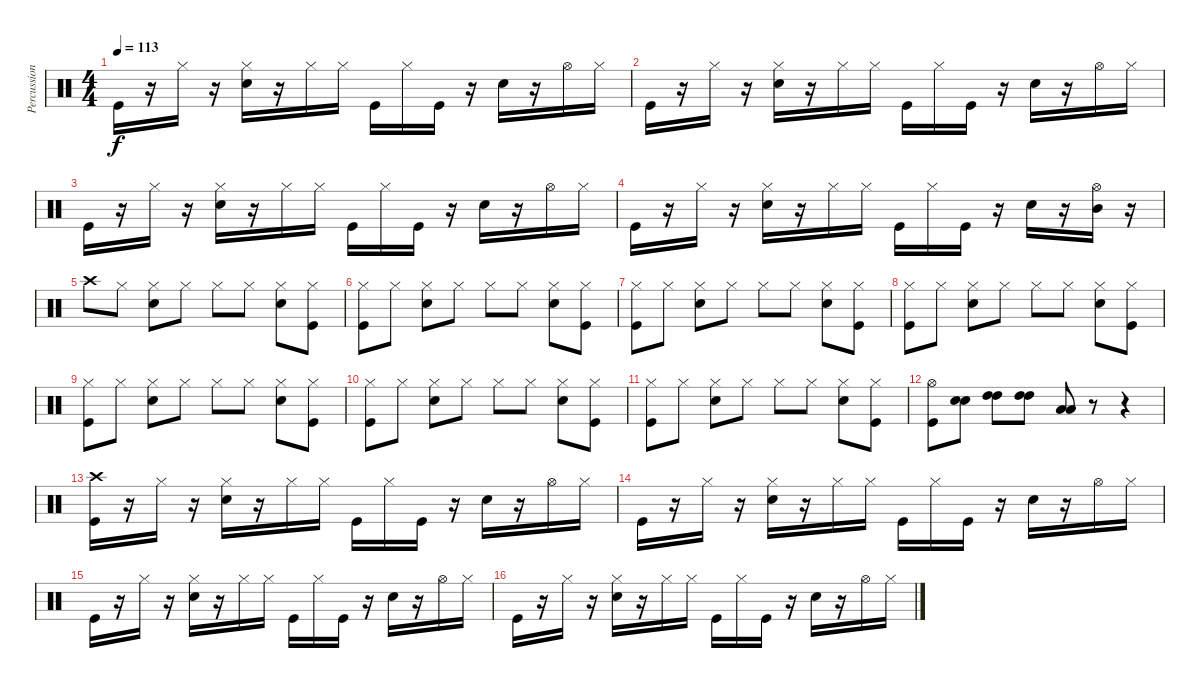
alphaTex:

\track ("Percussioni" "Percussion") {instrument percussion}
\staff {score}
\articulation defaults
\ts (4 4)
\tempo 113
\clef neutral
\ks c "Kick (hit)".16{dy f}
r.16 "Hi-Hat (closed)".16 r.16 ("Hi-Hat (closed)" "Electric Snare (hit)").16 r.16 "Hi-Hat (closed)".16 "Hi-Hat (closed)".16 "Kick (hit)".16 "Hi-Hat (closed)".16 "Kick (hit)".16 r.16 "Electric Snare (hit)".16 r.16 "Hi-Hat (open)".16 "Hi-Hat (closed)".16 |
"Kick (hit)".16 r.16 "Hi-Hat (closed)".16 r.16 ("Hi-Hat (closed)" "Electric Snare (hit)").16 r.16 "Hi-Hat (closed)".16 "Hi-Hat (closed)".16 "Kick (hit)".16 "Hi-Hat (closed)".16 "Kick (hit)".16 r.16 "Electric Snare (hit)".16 r.16 "Hi-Hat (open)".16 "Hi-Hat (closed)".16 |
"Kick (hit)".16 r.16 "Hi-Hat (closed)".16 r.16 ("Hi-Hat (closed)" "Electric Snare (hit)").16 r.16 "Hi-Hat (closed)".16 "Hi-Hat (closed)".16 "Kick (hit)".16 "Hi-Hat (closed)".16 "Kick (hit)".16 r.16 "Electric Snare (hit)".16 r.16 "Hi-Hat (open)".16 "Hi-Hat (closed)".16 |
"Kick (hit)".16 r.16 "Hi-Hat (closed)".16 r.16 ("Hi-Hat (closed)" "Electric Snare (hit)").16 r.16 "Hi-Hat (closed)".16 "Hi-Hat (closed)".16 "Kick (hit)".16 "Hi-Hat (closed)".16 "Kick (hit)".16 r.16 "Electric Snare (hit)".16 r.16 ("Hi-Hat (open)" "Mid Tom (hit)").16 r.16 |
"Crash high (hit)".8 "Hi-Hat (closed)".8 ("Hi-Hat (closed)" "Electric Snare (hit)").8 "Hi-Hat (closed)".8 "Hi-Hat (closed)".8 "Hi-Hat (closed)".8 ("Hi-Hat (closed)" "Electric Snare (hit)").8 ("Hi-Hat (closed)" "Kick (hit)").8 |
("Hi-Hat (closed)" "Kick (hit)").8 "Hi-Hat (closed)".8 ("Hi-Hat (closed)" "Electric Snare (hit)").8 "Hi-Hat (closed)".8 "Hi-Hat (closed)".8 "Hi-Hat (closed)".8 ("Hi-Hat (closed)" "Electric Snare (hit)").8 ("Hi-Hat (closed)" "Kick (hit)").8 |
("Hi-Hat (closed)" "Kick (hit)").8 "Hi-Hat (closed)".8 ("Hi-Hat (closed)" "Electric Snare (hit)").8 "Hi-Hat (closed)".8 "Hi-Hat (closed)".8 "Hi-Hat (closed)".8 ("Hi-Hat (closed)" "Electric Snare (hit)").8 ("Hi-Hat (closed)" "Kick (hit)").8 |
("Hi-Hat (closed)" "Kick (hit)").8 "Hi-Hat (closed)".8 ("Hi-Hat (closed)" "Electric Snare (hit)").8 "Hi-Hat (closed)".8 "Hi-Hat (closed)".8 "Hi-Hat (closed)".8 ("Hi-Hat (closed)" "Electric Snare (hit)").8 ("Hi-Hat (closed)" "Kick (hit)").8 |
("Hi-Hat (closed)" "Kick (hit)").8 "Hi-Hat (closed)".8 ("Hi-Hat (closed)" "Electric Snare (hit)").8 "Hi-Hat (closed)".8 "Hi-Hat (closed)".8 "Hi-Hat (closed)".8 ("Hi-Hat (closed)" "Electric Snare (hit)").8 ("Hi-Hat (closed)" "Kick (hit)").8 |
("Hi-Hat (closed)" "Kick (hit)").8 "Hi-Hat (closed)".8 ("Hi-Hat (closed)" "Electric Snare (hit)").8 "Hi-Hat (closed)".8 "Hi-Hat (closed)".8 "Hi-Hat (closed)".8 ("Hi-Hat (closed)" "Electric Snare (hit)").8 ("Hi-Hat (closed)" "Kick (hit)").8 |
("Hi-Hat (closed)" "Kick (hit)").8 "Hi-Hat (closed)".8 ("Hi-Hat (closed)" "Electric Snare (hit)").8 "Hi-Hat (closed)".8 "Hi-Hat (closed)".8 "Hi-Hat (closed)".8 ("Hi-Hat (closed)" "Electric Snare (hit)").8 ("Hi-Hat (closed)" "Kick (hit)").8 |
("Hi-Hat (open)" "Kick (hit)").8 ("Electric Snare (hit)" "Electric Snare (hit)").8 ("High Tom (hit)" "High Tom (hit)").8 ("High Tom (hit)" "High Tom (hit)").8 ("Low Tom (hit)" "Low Tom (hit)").8 r.8 r.4 |
("Crash high (hit)" "Kick (hit)").16 r.16 "Hi-Hat (closed)".16 r.16 ("Hi-Hat (closed)" "Electric Snare (hit)").16 r.16 "Hi-Hat (closed)".16 "Hi-Hat (closed)".16 "Kick (hit)".16 "Hi-Hat (closed)".16 "Kick (hit)".16 r.16 "Electric Snare (hit)".16 r.16 "Hi-Hat (open)".16 "Hi-Hat (closed)".16 |
"Kick (hit)".16 r.16 "Hi-Hat (closed)".16 r.16 ("Hi-Hat (closed)" "Electric Snare (hit)").16 r.16 "Hi-Hat (closed)".16 "Hi-Hat (closed)".16 "Kick (hit)".16 "Hi-Hat (closed)".16 "Kick (hit)".16 r.16 "Electric Snare (hit)".16 r.16 "Hi-Hat (open)".16 "Hi-Hat (closed)".16 |
"Kick (hit)".16 r.16 "Hi-Hat (closed)".16 r.16 ("Hi-Hat (closed)" "Electric Snare (hit)").16 r.16 "Hi-Hat (closed)".16 "Hi-Hat (closed)".16 "Kick (hit)".16 "Hi-Hat (closed)".16 "Kick (hit)".16 r.16 "Electric Snare (hit)".16 r.16 "Hi-Hat (open)".16 "Hi-Hat (closed)".16 |
"Kick (hit)".16 r.16 "Hi-Hat (closed)".16 r.16 ("Hi-Hat (closed)" "Electric Snare (hit)").16 r.16 "Hi-Hat (closed)".16 "Hi-Hat (closed)".16 "Kick (hit)".16 "Hi-Hat (closed)".16 "Kick (hit)".16 r.16 "Electric Snare (hit)".16 r.16 "Hi-Hat (open)".16 "Hi-Hat (closed)".16
